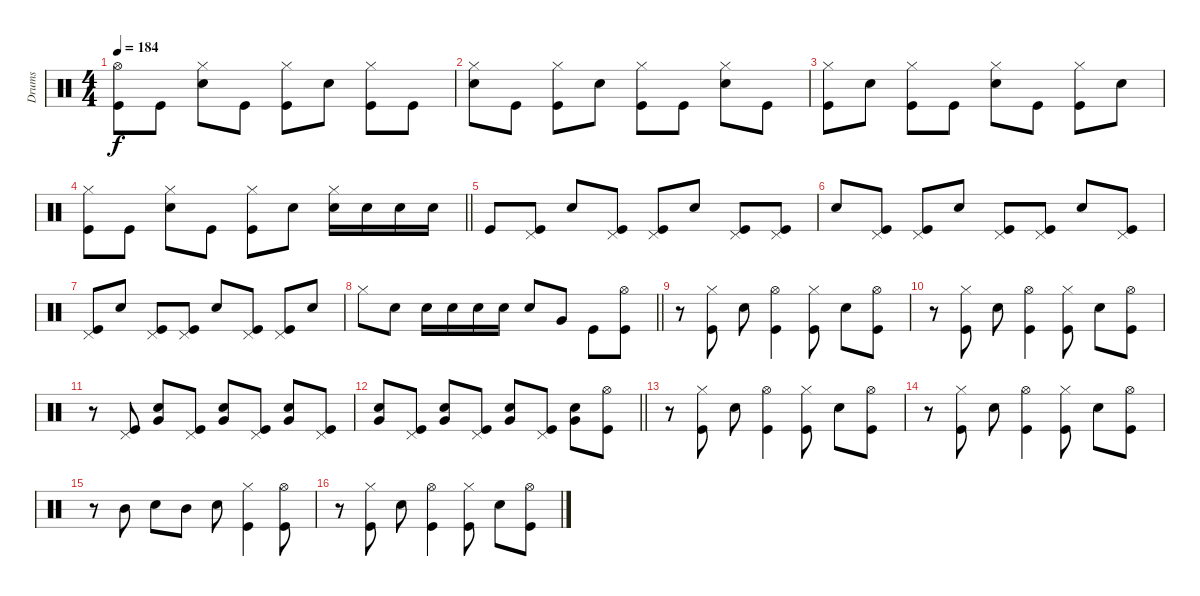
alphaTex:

\track (" Drums" " Drums") {instrument percussion}
\staff {score}
\articulation defaults
\ts (4 4)
\tempo 184
\clef neutral
\ks c
("Hi-Hat (open)" "Kick (hit)").8{dy f} "Kick (hit)".8 ("Snare (hit) 2" "Hi-Hat (closed)").8 "Kick (hit)".8 ("Kick (hit)" "Hi-Hat (closed)").8 "Snare (hit) 2".8 ("Kick (hit)" "Hi-Hat (closed)").8 "Kick (hit)".8 |
("Snare (hit) 2" "Hi-Hat (closed)").8 "Kick (hit)".8 ("Kick (hit)" "Hi-Hat (closed)").8 "Snare (hit) 2".8 ("Kick (hit)" "Hi-Hat (closed)").8 "Kick (hit)".8 ("Snare (hit) 2" "Hi-Hat (closed)").8 "Kick (hit)".8 |
("Kick (hit)" "Hi-Hat (closed)").8 "Snare (hit) 2".8 ("Kick (hit)" "Hi-Hat (closed)").8 "Kick (hit)".8 ("Snare (hit) 2" "Hi-Hat (closed)").8 "Kick (hit)".8 ("Kick (hit)" "Hi-Hat (closed)").8 "Snare (hit) 2".8 |
\barLineRight lightlight
("Kick (hit)" "Hi-Hat (closed)").8 "Kick (hit)".8 ("Snare (hit) 2" "Hi-Hat (closed)").8 "Kick (hit)".8 ("Kick (hit)" "Hi-Hat (closed)").8 "Snare (hit) 2".8 ("Snare (hit) 2" "Hi-Hat (closed)").16 "Snare (hit) 2".16 "Snare (hit) 2".16 "Snare (hit) 2".16 |
"Kick (hit)".8 ("Kick (hit)" "Pedal Hi-Hat (hit)").8 "Snare (hit) 2".8 ("Kick (hit)" "Pedal Hi-Hat (hit)").8 ("Kick (hit)" "Pedal Hi-Hat (hit)").8 "Snare (hit) 2".8 ("Kick (hit)" "Pedal Hi-Hat (hit)").8 ("Kick (hit)" "Pedal Hi-Hat (hit)").8 |
"Snare (hit) 2".8 ("Kick (hit)" "Pedal Hi-Hat (hit)").8 ("Kick (hit)" "Pedal Hi-Hat (hit)").8 "Snare (hit) 2".8 ("Kick (hit)" "Pedal Hi-Hat (hit)").8 ("Kick (hit)" "Pedal Hi-Hat (hit)").8 "Snare (hit) 2".8 ("Kick (hit)" "Pedal Hi-Hat (hit)").8 |
("Kick (hit)" "Pedal Hi-Hat (hit)").8 "Snare (hit) 2".8 ("Kick (hit)" "Pedal Hi-Hat (hit)").8 ("Kick (hit)" "Pedal Hi-Hat (hit)").8 "Snare (hit) 2".8 ("Kick (hit)" "Pedal Hi-Hat (hit)").8 ("Kick (hit)" "Pedal Hi-Hat (hit)").8 "Snare (hit) 2".8 |
\barLineRight lightlight "Hi-Hat (closed)".8 "Snare (hit) 2".8 "Snare (hit) 2".16 "Snare (hit) 2".16 "Snare (hit) 2".16 "Snare (hit) 2".16 "Snare (hit) 2".8 "Very Low Tom (hit)".8 "Kick (hit)".8
("Hi-Hat (open)" "Kick (hit)").8 |
r.8 ("Kick (hit)" "Hi-Hat (closed)").8 "Snare (hit) 2".8 ("Kick (hit)" "Hi-Hat (open)").4 ("Kick (hit)" "Hi-Hat (closed)").8 "Snare (hit) 2".8 ("Kick (hit)" "Hi-Hat (open)").8 |
r.8 ("Kick (hit)" "Hi-Hat (closed)").8 "Snare (hit) 2".8 ("Kick (hit)" "Hi-Hat (open)").4 ("Kick (hit)" "Hi-Hat (closed)").8 "Snare (hit) 2".8 ("Kick (hit)" "Hi-Hat (open)").8 |
r.8 ("Pedal Hi-Hat (hit)" "Kick (hit)").8 ("Snare (hit) 2" "Very Low Tom (hit)").8 ("Kick (hit)" "Pedal Hi-Hat (hit)").8 ("Snare (hit) 2" "Very Low Tom (hit)").8 ("Kick (hit)" "Pedal Hi-Hat (hit)").8 ("Snare (hit) 2" "Very Low Tom (hit)").8 ("Kick (hit)" "Pedal Hi-Hat (hit)").8 |
\barLineRight lightlight
("Snare (hit) 2" "Very Low Tom (hit)").8 ("Kick (hit)" "Pedal Hi-Hat (hit)").8 ("Snare (hit) 2" "Very Low Tom (hit)").8 ("Kick (hit)" "Pedal Hi-Hat (hit)").8 ("Snare (hit) 2" "Very Low Tom (hit)").8 ("Kick (hit)" "Pedal Hi-Hat (hit)").8 ("Snare (hit) 2" "Very Low Tom (hit)").8 ("Kick (hit)" "Hi-Hat (open)").8 |
r.8 ("Kick (hit)" "Hi-Hat (closed)").8 "Snare (hit) 2".8 ("Kick (hit)" "Hi-Hat (open)").4 ("Kick (hit)" "Hi-Hat (closed)").8 "Snare (hit) 2".8 ("Kick (hit)" "Hi-Hat (open)").8 |
r.8 ("Kick (hit)" "Hi-Hat (closed)").8 "Snare (hit) 2".8 ("Kick (hit)" "Hi-Hat (open)").4 ("Hi-Hat (closed)" "Kick (hit)").8 "Snare (hit) 2".8 ("Kick (hit)" "Hi-Hat (open)").8 |
r.8 "Mid Tom (hit)".8 "Snare (hit) 2".8 "Mid Tom (hit)".8 "Snare (hit) 2".8 ("Kick (hit)" "Hi-Hat (closed)").4 ("Kick (hit)" "Hi-Hat (open)").8 |
r.8 ("Kick (hit)" "Hi-Hat (closed)").8 "Snare (hit) 2".8 ("Kick (hit)" "Hi-Hat (open)").4 ("Kick (hit)" "Hi-Hat (closed)").8 "Snare (hit) 2".8 ("Kick (hit)" "Hi-Hat (open)").8
